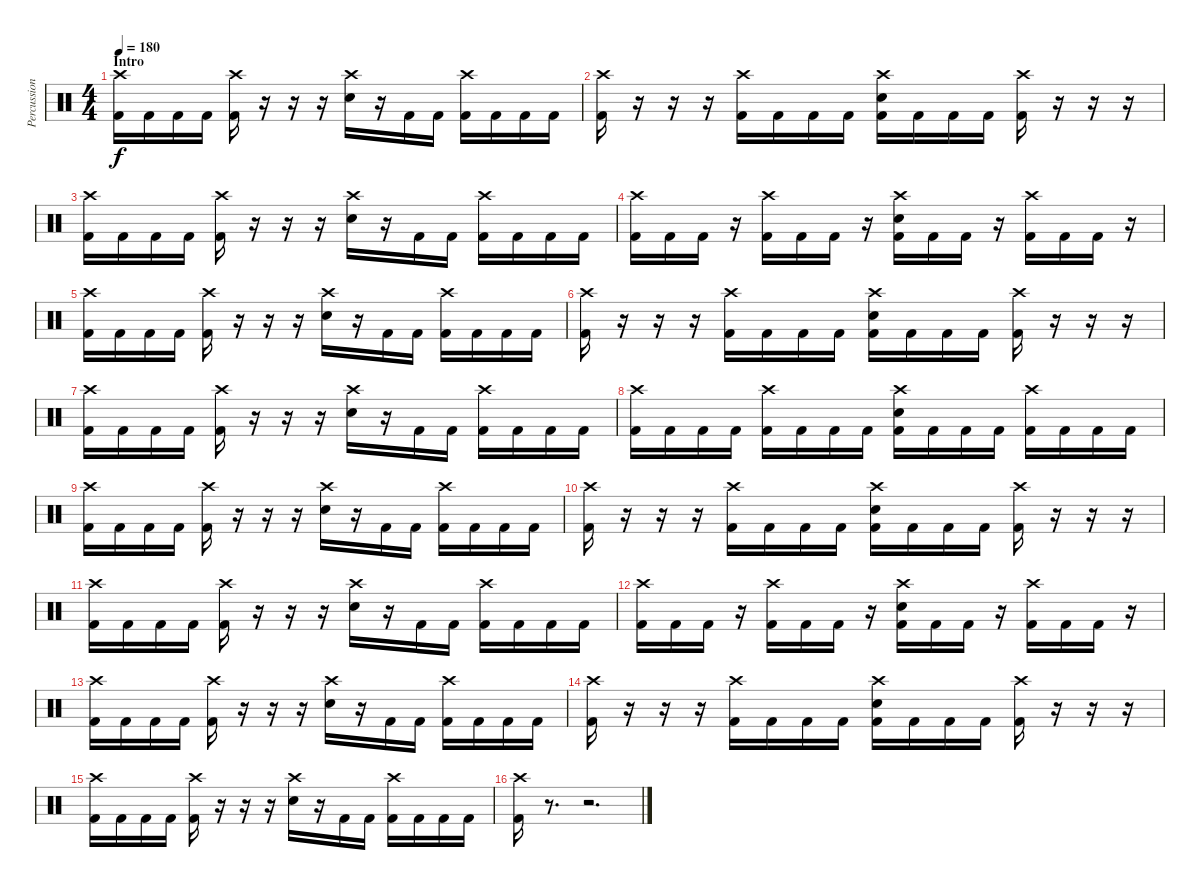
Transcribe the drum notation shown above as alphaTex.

\track ("Percussions" "Percussion") {instrument percussion}
\staff {score}
\articulation defaults
\ts (4 4)
\section ("" "Intro")
\tempo 180
\clef neutral
\ks c
("Crash high (hit)" "Kick (hit) 2").16{dy f} "Kick (hit) 2".16 "Kick (hit) 2".16 "Kick (hit) 2".16 ("Crash high (hit)" "Kick (hit) 2").16 r.16 r.16 r.16 ("Crash high (hit)" "Electric Snare (hit)").16 r.16 "Kick (hit) 2".16 "Kick (hit) 2".16 ("Crash high (hit)" "Kick (hit) 2").16 "Kick (hit) 2".16 "Kick (hit) 2".16 "Kick (hit) 2".16 |
("Crash high (hit)" "Kick (hit) 2").16 r.16 r.16 r.16 ("Crash high (hit)" "Kick (hit) 2").16 "Kick (hit) 2".16 "Kick (hit) 2".16 "Kick (hit) 2".16 ("Crash high (hit)" "Electric Snare (hit)" "Kick (hit) 2").16 "Kick (hit) 2".16 "Kick (hit) 2".16 "Kick (hit) 2".16 ("Crash high (hit)" "Kick (hit) 2").16 r.16 r.16 r.16 |
("Crash high (hit)" "Kick (hit) 2").16 "Kick (hit) 2".16 "Kick (hit) 2".16 "Kick (hit) 2".16 ("Crash high (hit)" "Kick (hit) 2").16 r.16 r.16 r.16 ("Crash high (hit)" "Electric Snare (hit)").16 r.16 "Kick (hit) 2".16 "Kick (hit) 2".16 ("Crash high (hit)" "Kick (hit) 2").16 "Kick (hit) 2".16 "Kick (hit) 2".16 "Kick (hit) 2".16 |
("Crash high (hit)" "Kick (hit) 2").16 "Kick (hit) 2".16 "Kick (hit) 2".16 r.16 ("Crash high (hit)" "Kick (hit) 2").16 "Kick (hit) 2".16 "Kick (hit) 2".16 r.16 ("Crash high (hit)" "Electric Snare (hit)" "Kick (hit) 2").16 "Kick (hit) 2".16 "Kick (hit) 2".16 r.16 ("Crash high (hit)" "Kick (hit) 2").16 "Kick (hit) 2".16 "Kick (hit) 2".16 r.16 |
("Crash high (hit)" "Kick (hit) 2").16 "Kick (hit) 2".16 "Kick (hit) 2".16 "Kick (hit) 2".16 ("Crash high (hit)" "Kick (hit) 2").16 r.16 r.16 r.16 ("Crash high (hit)" "Electric Snare (hit)").16 r.16 "Kick (hit) 2".16 "Kick (hit) 2".16 ("Crash high (hit)" "Kick (hit) 2").16 "Kick (hit) 2".16 "Kick (hit) 2".16 "Kick (hit) 2".16 |
("Crash high (hit)" "Kick (hit) 2").16 r.16 r.16 r.16 ("Crash high (hit)" "Kick (hit) 2").16 "Kick (hit) 2".16 "Kick (hit) 2".16 "Kick (hit) 2".16 ("Crash high (hit)" "Electric Snare (hit)" "Kick (hit) 2").16 "Kick (hit) 2".16 "Kick (hit) 2".16 "Kick (hit) 2".16 ("Crash high (hit)" "Kick (hit) 2").16 r.16 r.16 r.16 |
("Crash high (hit)" "Kick (hit) 2").16 "Kick (hit) 2".16 "Kick (hit) 2".16 "Kick (hit) 2".16 ("Crash high (hit)" "Kick (hit) 2").16 r.16 r.16 r.16 ("Crash high (hit)" "Electric Snare (hit)").16 r.16 "Kick (hit) 2".16 "Kick (hit) 2".16 ("Crash high (hit)" "Kick (hit) 2").16 "Kick (hit) 2".16 "Kick (hit) 2".16 "Kick (hit) 2".16 |
("Crash high (hit)" "Kick (hit) 2").16 "Kick (hit) 2".16 "Kick (hit) 2".16 "Kick (hit) 2".16 ("Crash high (hit)" "Kick (hit) 2").16 "Kick (hit) 2".16 "Kick (hit) 2".16 "Kick (hit) 2".16 ("Crash high (hit)" "Electric Snare (hit)" "Kick (hit) 2").16 "Kick (hit) 2".16 "Kick (hit) 2".16 "Kick (hit) 2".16 ("Crash high (hit)" "Kick (hit) 2").16 "Kick (hit) 2".16 "Kick (hit) 2".16 "Kick (hit) 2".16 |
("Crash high (hit)" "Kick (hit) 2").16 "Kick (hit) 2".16 "Kick (hit) 2".16 "Kick (hit) 2".16 ("Crash high (hit)" "Kick (hit) 2").16 r.16 r.16 r.16 ("Crash high (hit)" "Electric Snare (hit)").16 r.16 "Kick (hit) 2".16 "Kick (hit) 2".16 ("Crash high (hit)" "Kick (hit) 2").16 "Kick (hit) 2".16 "Kick (hit) 2".16 "Kick (hit) 2".16 |
("Crash high (hit)" "Kick (hit) 2").16 r.16 r.16 r.16 ("Crash high (hit)" "Kick (hit) 2").16 "Kick (hit) 2".16 "Kick (hit) 2".16 "Kick (hit) 2".16 ("Crash high (hit)" "Electric Snare (hit)" "Kick (hit) 2").16 "Kick (hit) 2".16 "Kick (hit) 2".16 "Kick (hit) 2".16 ("Crash high (hit)" "Kick (hit) 2").16 r.16 r.16 r.16 |
("Crash high (hit)" "Kick (hit) 2").16 "Kick (hit) 2".16 "Kick (hit) 2".16 "Kick (hit) 2".16 ("Crash high (hit)" "Kick (hit) 2").16 r.16 r.16 r.16 ("Crash high (hit)" "Electric Snare (hit)").16 r.16 "Kick (hit) 2".16 "Kick (hit) 2".16 ("Crash high (hit)" "Kick (hit) 2").16 "Kick (hit) 2".16 "Kick (hit) 2".16 "Kick (hit) 2".16 |
("Crash high (hit)" "Kick (hit) 2").16 "Kick (hit) 2".16 "Kick (hit) 2".16 r.16 ("Crash high (hit)" "Kick (hit) 2").16 "Kick (hit) 2".16 "Kick (hit) 2".16 r.16 ("Crash high (hit)" "Electric Snare (hit)" "Kick (hit) 2").16 "Kick (hit) 2".16 "Kick (hit) 2".16 r.16 ("Crash high (hit)" "Kick (hit) 2").16 "Kick (hit) 2".16 "Kick (hit) 2".16 r.16 |
("Crash high (hit)" "Kick (hit) 2").16 "Kick (hit) 2".16 "Kick (hit) 2".16 "Kick (hit) 2".16 ("Crash high (hit)" "Kick (hit) 2").16 r.16 r.16 r.16 ("Crash high (hit)" "Electric Snare (hit)").16 r.16 "Kick (hit) 2".16 "Kick (hit) 2".16 ("Crash high (hit)" "Kick (hit) 2").16 "Kick (hit) 2".16 "Kick (hit) 2".16 "Kick (hit) 2".16 |
("Crash high (hit)" "Kick (hit) 2").16 r.16 r.16 r.16 ("Crash high (hit)" "Kick (hit) 2").16 "Kick (hit) 2".16 "Kick (hit) 2".16 "Kick (hit) 2".16 ("Crash high (hit)" "Electric Snare (hit)" "Kick (hit) 2").16 "Kick (hit) 2".16 "Kick (hit) 2".16 "Kick (hit) 2".16 ("Crash high (hit)" "Kick (hit) 2").16 r.16 r.16 r.16 |
("Crash high (hit)" "Kick (hit) 2").16 "Kick (hit) 2".16 "Kick (hit) 2".16 "Kick (hit) 2".16 ("Crash high (hit)" "Kick (hit) 2").16 r.16 r.16 r.16 ("Crash high (hit)" "Electric Snare (hit)").16 r.16 "Kick (hit) 2".16 "Kick (hit) 2".16 ("Crash high (hit)" "Kick (hit) 2").16 "Kick (hit) 2".16 "Kick (hit) 2".16 "Kick (hit) 2".16 |
("Crash high (hit)" "Kick (hit) 2").16 r.8{d} r.2{d}
